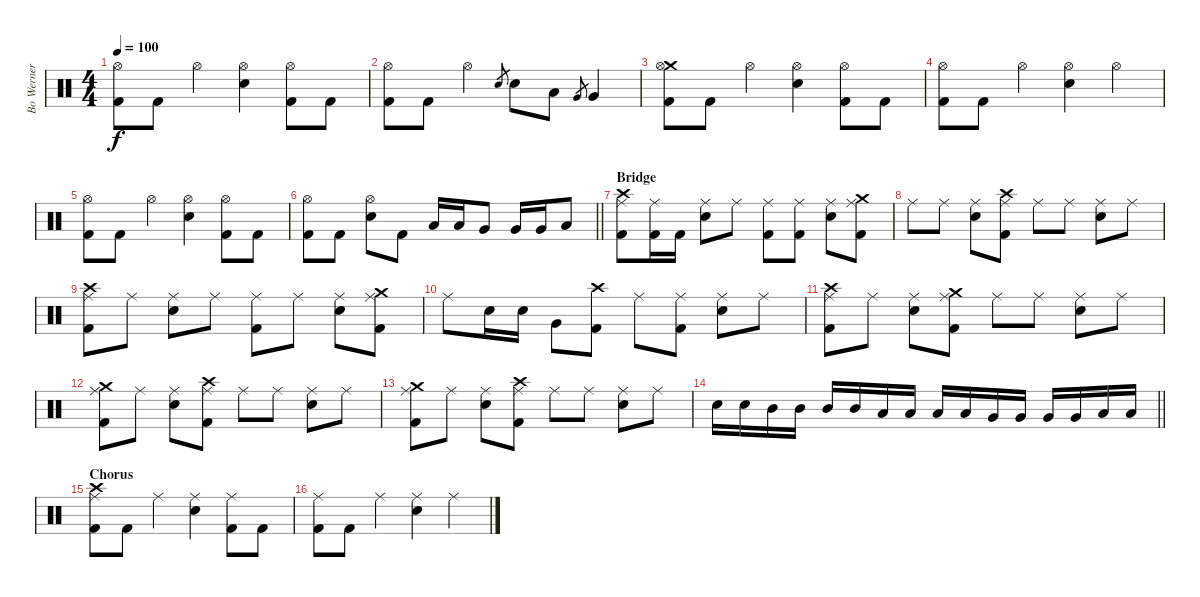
\track ("Bo Werner" "Bo Werner") {instrument percussion}
\staff {score}
\articulation defaults
\ts (4 4)
\tempo 100
\clef neutral
\ks c
("Hi-Hat (open)" "Kick (hit) 2").8{dy f} "Kick (hit) 2".8 "Hi-Hat (open)".4 ("Hi-Hat (open)" "Snare (hit) 2").4 ("Hi-Hat (open)" "Kick (hit) 2").8 "Kick (hit) 2".8 |
("Hi-Hat (open)" "Kick (hit) 2").8 "Kick (hit) 2".8 "Hi-Hat (open)".4 "Snare (hit) 2".8{gr} "Snare (hit) 2".8 "Low Tom (hit)".8 "Very Low Tom (hit)".8{gr} "Very Low Tom (hit)".4 |
("Crash medium (hit)" "Hi-Hat (open)" "Kick (hit) 2").8 "Kick (hit) 2".8 "Hi-Hat (open)".4 ("Hi-Hat (open)" "Snare (hit) 2").4 ("Hi-Hat (open)" "Kick (hit) 2").8 "Kick (hit) 2".8 |
("Hi-Hat (open)" "Kick (hit) 2").8 "Kick (hit) 2".8 "Hi-Hat (open)".4 ("Hi-Hat (open)" "Snare (hit) 2").4 "Hi-Hat (open)".4 |
("Hi-Hat (open)" "Kick (hit) 2").8 "Kick (hit) 2".8 "Hi-Hat (open)".4 ("Hi-Hat (open)" "Snare (hit) 2").4 ("Hi-Hat (open)" "Kick (hit) 2").8 "Kick (hit) 2".8 |
\barLineRight lightlight
("Hi-Hat (open)" "Kick (hit) 2").8 "Kick (hit) 2".8 ("Hi-Hat (open)" "Snare (hit) 2").8 "Kick (hit) 2".8 "Low Tom (hit)".16 "Low Tom (hit)".16 "Very Low Tom (hit)".8 "Very Low Tom (hit)".16 "Very Low Tom (hit)".16 "Low Floor Tom (hit)".8 |
\section ("" "Bridge")
("Crash high (hit)" "Ride (middle)" "Kick (hit) 2").8 ("Ride (middle)" "Kick (hit) 2").16 "Kick (hit) 2".16 ("Ride (middle)" "Snare (hit) 2").8 "Ride (middle)".8 ("Ride (middle)" "Kick (hit) 2").8 ("Ride (middle)" "Kick (hit) 2").8 ("Ride (middle)" "Snare (hit) 2").8 ("Crash medium (hit)" "Ride (middle)" "Kick (hit) 2").8 |
"Ride (middle)".8 "Ride (middle)".8 ("Ride (middle)" "Snare (hit) 2").8 ("Crash high (hit)" "Ride (middle)" "Kick (hit) 2").8 "Ride (middle)".8 "Ride (middle)".8 ("Ride (middle)" "Snare (hit) 2").8 "Ride (middle)".8 |
("Crash high (hit)" "Ride (middle)" "Kick (hit) 2").8 "Ride (middle)".8 ("Ride (middle)" "Snare (hit) 2").8 "Ride (middle)".8 ("Ride (middle)" "Kick (hit) 2").8 "Ride (middle)".8 ("Ride (middle)" "Snare (hit) 2").8 ("Crash medium (hit)" "Ride (middle)" "Kick (hit) 2").8 |
"Ride (middle)".8 "Snare (hit) 2".16 "Snare (hit) 2".16 "Very Low Tom (hit)".8 ("Crash high (hit)" "Kick (hit) 2").8 "Ride (middle)".8 ("Ride (middle)" "Kick (hit) 2").8 ("Ride (middle)" "Snare (hit) 2").8 "Ride (middle)".8 |
("Crash high (hit)" "Ride (middle)" "Kick (hit) 2").8 "Ride (middle)".8 ("Ride (middle)" "Snare (hit) 2").8 ("Crash medium (hit)" "Ride (middle)" "Kick (hit) 2").8 "Ride (middle)".8 "Ride (middle)".8 ("Ride (middle)" "Snare (hit) 2").8 "Ride (middle)".8 |
("Crash medium (hit)" "Ride (middle)" "Kick (hit) 2").8 "Ride (middle)".8 ("Ride (middle)" "Snare (hit) 2").8 ("Crash high (hit)" "Ride (middle)" "Kick (hit) 2").8 "Ride (middle)".8 "Ride (middle)".8 ("Ride (middle)" "Snare (hit) 2").8 "Ride (middle)".8 |
("Crash medium (hit)" "Ride (middle)" "Kick (hit) 2").8 "Ride (middle)".8 ("Ride (middle)" "Snare (hit) 2").8 ("Crash high (hit)" "Ride (middle)" "Kick (hit) 2").8 "Ride (middle)".8 "Ride (middle)".8 ("Ride (middle)" "Snare (hit) 2").8 "Ride (middle)".8 |
\barLineRight lightlight "Snare (hit) 2".16 "Snare (hit) 2".16 "Mid Tom (hit)".16 "Mid Tom (hit)".16 "Mid Tom (hit)".16 "Mid Tom (hit)".16 "Low Tom (hit)".16 "Low Tom (hit)".16 "Low Tom (hit)".16 "Low Tom (hit)".16 "Very Low Tom (hit)".16 "Very Low Tom (hit)".16 "Very Low Tom (hit)".16 "Very Low Tom (hit)".16 "Low Floor Tom (hit)".16 "Low Floor Tom (hit)".16
|
\section ("" "Chorus")
("Crash high (hit)" "Ride (middle)" "Kick (hit) 2").8 "Kick (hit) 2".8 "Ride (middle)".4 ("Ride (middle)" "Snare (hit) 2").4 ("Ride (middle)" "Kick (hit) 2").8 "Kick (hit) 2".8 |
("Ride (middle)" "Kick (hit) 2").8 "Kick (hit) 2".8 "Ride (middle)".4 ("Ride (middle)" "Snare (hit) 2").4 "Ride (middle)".4
